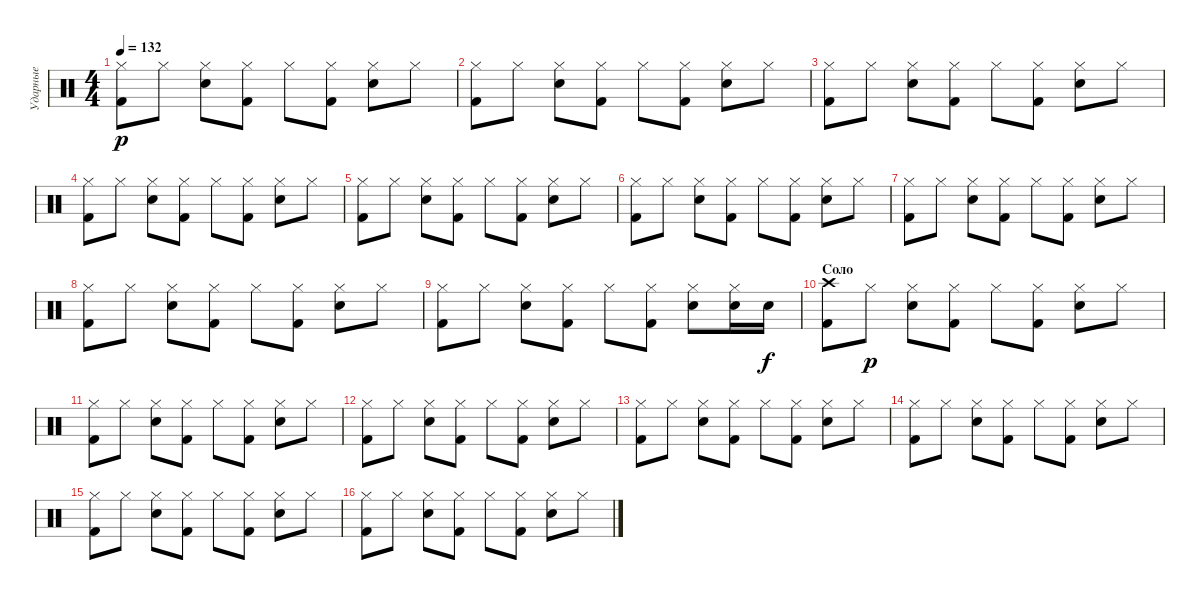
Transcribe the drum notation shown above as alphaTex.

\track ("Ударные" "Ударные") {instrument percussion}
\staff {score}
\articulation defaults
\ts (4 4)
\tempo 132
\clef neutral
\ks c
("Hi-Hat (closed)" "Kick (hit) 2").8{dy p} "Hi-Hat (closed)".8 ("Hi-Hat (closed)" "Snare (hit) 2").8 ("Hi-Hat (closed)" "Kick (hit) 2").8 "Hi-Hat (closed)".8 ("Hi-Hat (closed)" "Kick (hit) 2").8 ("Hi-Hat (closed)" "Snare (hit) 2").8 "Hi-Hat (closed)".8 |
("Hi-Hat (closed)" "Kick (hit) 2").8 "Hi-Hat (closed)".8 ("Hi-Hat (closed)" "Snare (hit) 2").8 ("Hi-Hat (closed)" "Kick (hit) 2").8 "Hi-Hat (closed)".8 ("Hi-Hat (closed)" "Kick (hit) 2").8 ("Hi-Hat (closed)" "Snare (hit) 2").8 "Hi-Hat (closed)".8 |
("Hi-Hat (closed)" "Kick (hit) 2").8 "Hi-Hat (closed)".8 ("Hi-Hat (closed)" "Snare (hit) 2").8 ("Hi-Hat (closed)" "Kick (hit) 2").8 "Hi-Hat (closed)".8 ("Hi-Hat (closed)" "Kick (hit) 2").8 ("Hi-Hat (closed)" "Snare (hit) 2").8 "Hi-Hat (closed)".8 |
("Hi-Hat (closed)" "Kick (hit) 2").8 "Hi-Hat (closed)".8 ("Hi-Hat (closed)" "Snare (hit) 2").8 ("Hi-Hat (closed)" "Kick (hit) 2").8 "Hi-Hat (closed)".8 ("Hi-Hat (closed)" "Kick (hit) 2").8 ("Hi-Hat (closed)" "Snare (hit) 2").8 "Hi-Hat (closed)".8 |
("Hi-Hat (closed)" "Kick (hit) 2").8 "Hi-Hat (closed)".8 ("Hi-Hat (closed)" "Snare (hit) 2").8 ("Hi-Hat (closed)" "Kick (hit) 2").8 "Hi-Hat (closed)".8 ("Hi-Hat (closed)" "Kick (hit) 2").8 ("Hi-Hat (closed)" "Snare (hit) 2").8 "Hi-Hat (closed)".8 |
("Hi-Hat (closed)" "Kick (hit) 2").8 "Hi-Hat (closed)".8 ("Hi-Hat (closed)" "Snare (hit) 2").8 ("Hi-Hat (closed)" "Kick (hit) 2").8 "Hi-Hat (closed)".8 ("Hi-Hat (closed)" "Kick (hit) 2").8 ("Hi-Hat (closed)" "Snare (hit) 2").8 "Hi-Hat (closed)".8 |
("Hi-Hat (closed)" "Kick (hit) 2").8 "Hi-Hat (closed)".8 ("Hi-Hat (closed)" "Snare (hit) 2").8 ("Hi-Hat (closed)" "Kick (hit) 2").8 "Hi-Hat (closed)".8 ("Hi-Hat (closed)" "Kick (hit) 2").8 ("Hi-Hat (closed)" "Snare (hit) 2").8 "Hi-Hat (closed)".8 |
("Hi-Hat (closed)" "Kick (hit) 2").8 "Hi-Hat (closed)".8 ("Hi-Hat (closed)" "Snare (hit) 2").8 ("Hi-Hat (closed)" "Kick (hit) 2").8 "Hi-Hat (closed)".8 ("Hi-Hat (closed)" "Kick (hit) 2").8 ("Hi-Hat (closed)" "Snare (hit) 2").8 "Hi-Hat (closed)".8 |
("Hi-Hat (closed)" "Kick (hit) 2").8 "Hi-Hat (closed)".8 ("Hi-Hat (closed)" "Snare (hit) 2").8 ("Hi-Hat (closed)" "Kick (hit) 2").8 "Hi-Hat (closed)".8 ("Hi-Hat (closed)" "Kick (hit) 2").8 ("Hi-Hat (closed)" "Snare (hit) 2").8 ("Hi-Hat (closed)" "Snare (hit) 2").16 "Snare (hit) 2".16{dy f} |
\section ("" "Соло")
("Crash high (hit)" "Kick (hit) 2").8 "Hi-Hat (closed)".8{dy p} ("Hi-Hat (closed)" "Snare (hit) 2").8 ("Hi-Hat (closed)" "Kick (hit) 2").8 "Hi-Hat (closed)".8 ("Hi-Hat (closed)" "Kick (hit) 2").8 ("Hi-Hat (closed)" "Snare (hit) 2").8 "Hi-Hat (closed)".8 |
("Hi-Hat (closed)" "Kick (hit) 2").8 "Hi-Hat (closed)".8 ("Hi-Hat (closed)" "Snare (hit) 2").8 ("Hi-Hat (closed)" "Kick (hit) 2").8 "Hi-Hat (closed)".8 ("Hi-Hat (closed)" "Kick (hit) 2").8 ("Hi-Hat (closed)" "Snare (hit) 2").8 "Hi-Hat (closed)".8 |
("Hi-Hat (closed)" "Kick (hit) 2").8 "Hi-Hat (closed)".8 ("Hi-Hat (closed)" "Snare (hit) 2").8 ("Hi-Hat (closed)" "Kick (hit) 2").8 "Hi-Hat (closed)".8 ("Hi-Hat (closed)" "Kick (hit) 2").8 ("Hi-Hat (closed)" "Snare (hit) 2").8 "Hi-Hat (closed)".8 |
("Hi-Hat (closed)" "Kick (hit) 2").8 "Hi-Hat (closed)".8 ("Hi-Hat (closed)" "Snare (hit) 2").8 ("Hi-Hat (closed)" "Kick (hit) 2").8 "Hi-Hat (closed)".8 ("Hi-Hat (closed)" "Kick (hit) 2").8 ("Hi-Hat (closed)" "Snare (hit) 2").8 "Hi-Hat (closed)".8 |
("Hi-Hat (closed)" "Kick (hit) 2").8 "Hi-Hat (closed)".8 ("Hi-Hat (closed)" "Snare (hit) 2").8 ("Hi-Hat (closed)" "Kick (hit) 2").8 "Hi-Hat (closed)".8 ("Hi-Hat (closed)" "Kick (hit) 2").8 ("Hi-Hat (closed)" "Snare (hit) 2").8 "Hi-Hat (closed)".8 |
("Hi-Hat (closed)" "Kick (hit) 2").8 "Hi-Hat (closed)".8 ("Hi-Hat (closed)" "Snare (hit) 2").8 ("Hi-Hat (closed)" "Kick (hit) 2").8 "Hi-Hat (closed)".8 ("Hi-Hat (closed)" "Kick (hit) 2").8 ("Hi-Hat (closed)" "Snare (hit) 2").8 "Hi-Hat (closed)".8 |
("Hi-Hat (closed)" "Kick (hit) 2").8 "Hi-Hat (closed)".8 ("Hi-Hat (closed)" "Snare (hit) 2").8 ("Hi-Hat (closed)" "Kick (hit) 2").8 "Hi-Hat (closed)".8 ("Hi-Hat (closed)" "Kick (hit) 2").8 ("Hi-Hat (closed)" "Snare (hit) 2").8 "Hi-Hat (closed)".8
